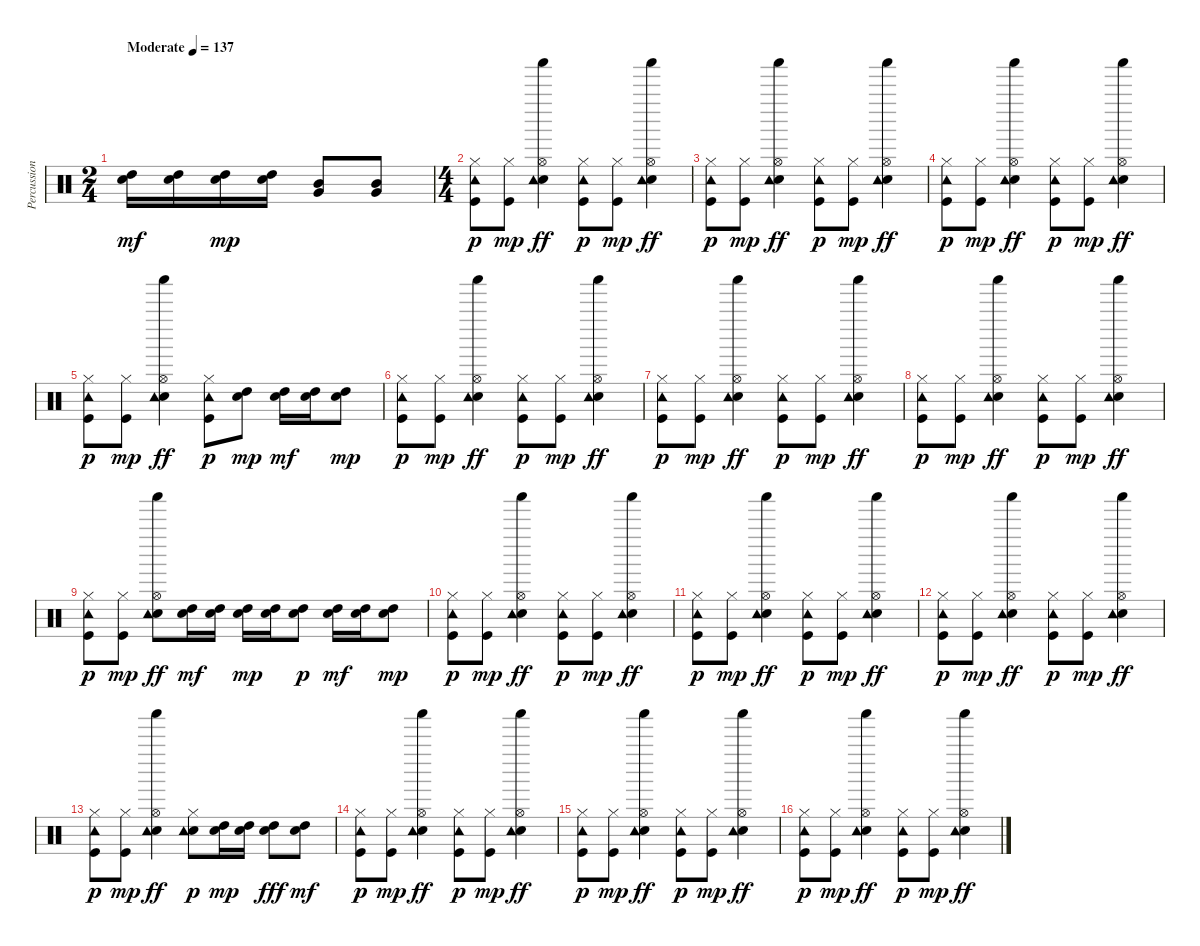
\track ("Percussion" "Percussion") {instrument percussion}
\staff {score}
\articulation defaults
\ts (2 4)
\tempo (137 "Moderate")
\clef neutral
\ks c
("Snare (hit) 2" "High Tom (hit)").16{bu 60 dy mf} ("Snare (hit) 2" "High Tom (hit)").16{bd 60} ("Snare (hit) 2" "High Tom (hit)").16{bu 60 dy mp} ("Snare (hit) 2" "High Tom (hit)").16{bd 60} ("Very Low Tom (hit)" "Mid Tom (hit)").8 ("Very Low Tom (hit)" "Mid Tom (hit)").8 |
\ts (4 4)
("Hi-Hat (closed)" "Kick (hit)" "Tambourine (hit)").8{dy p} ("Hi-Hat (closed)" "Kick (hit)").8{dy mp} ("Hi-Hat (open)" "Electric Snare (hit)" "Tambourine (hit)" "Shaker (hit)").4{dy ff} ("Hi-Hat (closed)" "Kick (hit)" "Tambourine (hit)").8{dy p} ("Hi-Hat (closed)" "Kick (hit)").8{dy mp} ("Hi-Hat (open)" "Electric Snare (hit)" "Tambourine (hit)" "Shaker (hit)").4{dy ff} |
("Hi-Hat (closed)" "Kick (hit)" "Tambourine (hit)").8{dy p} ("Hi-Hat (closed)" "Kick (hit)").8{dy mp} ("Hi-Hat (open)" "Electric Snare (hit)" "Tambourine (hit)" "Shaker (hit)").4{dy ff} ("Hi-Hat (closed)" "Kick (hit)" "Tambourine (hit)").8{dy p} ("Hi-Hat (closed)" "Kick (hit)").8{dy mp} ("Hi-Hat (open)" "Electric Snare (hit)" "Tambourine (hit)" "Shaker (hit)").4{dy ff} |
("Hi-Hat (closed)" "Kick (hit)" "Tambourine (hit)").8{dy p} ("Hi-Hat (closed)" "Kick (hit)").8{dy mp} ("Hi-Hat (open)" "Electric Snare (hit)" "Tambourine (hit)" "Shaker (hit)").4{dy ff} ("Hi-Hat (closed)" "Kick (hit)" "Tambourine (hit)").8{dy p} ("Hi-Hat (closed)" "Kick (hit)").8{dy mp} ("Hi-Hat (open)" "Electric Snare (hit)" "Tambourine (hit)" "Shaker (hit)").4{dy ff} |
("Hi-Hat (closed)" "Kick (hit)" "Tambourine (hit)").8{dy p} ("Hi-Hat (closed)" "Kick (hit)").8{dy mp} ("Hi-Hat (open)" "Electric Snare (hit)" "Tambourine (hit)" "Shaker (hit)").4{dy ff} ("Hi-Hat (closed)" "Kick (hit)" "Tambourine (hit)").8{dy p} ("Electric Snare (hit)" "High Tom (hit)").8{dy mp} ("Electric Snare (hit)" "High Tom (hit)").16{dy mf} ("Electric Snare (hit)" "High Tom (hit)").16 ("Electric Snare (hit)" "High Tom (hit)").8{dy mp} |
("Hi-Hat (closed)" "Kick (hit)" "Tambourine (hit)").8{dy p} ("Hi-Hat (closed)" "Kick (hit)").8{dy mp} ("Hi-Hat (open)" "Electric Snare (hit)" "Tambourine (hit)" "Shaker (hit)").4{dy ff} ("Hi-Hat (closed)" "Kick (hit)" "Tambourine (hit)").8{dy p} ("Hi-Hat (closed)" "Kick (hit)").8{dy mp} ("Hi-Hat (open)" "Electric Snare (hit)" "Tambourine (hit)" "Shaker (hit)").4{dy ff} |
("Hi-Hat (closed)" "Kick (hit)" "Tambourine (hit)").8{dy p} ("Hi-Hat (closed)" "Kick (hit)").8{dy mp} ("Hi-Hat (open)" "Electric Snare (hit)" "Tambourine (hit)" "Shaker (hit)").4{dy ff} ("Hi-Hat (closed)" "Kick (hit)" "Tambourine (hit)").8{dy p} ("Hi-Hat (closed)" "Kick (hit)").8{dy mp} ("Hi-Hat (open)" "Electric Snare (hit)" "Tambourine (hit)" "Shaker (hit)").4{dy ff} |
("Hi-Hat (closed)" "Kick (hit)" "Tambourine (hit)").8{dy p} ("Hi-Hat (closed)" "Kick (hit)").8{dy mp} ("Hi-Hat (open)" "Electric Snare (hit)" "Tambourine (hit)" "Shaker (hit)").4{dy ff} ("Hi-Hat (closed)" "Kick (hit)" "Tambourine (hit)").8{dy p} ("Hi-Hat (closed)" "Kick (hit)").8{dy mp} ("Hi-Hat (open)" "Electric Snare (hit)" "Tambourine (hit)" "Shaker (hit)").4{dy ff} |
("Hi-Hat (closed)" "Kick (hit)" "Tambourine (hit)").8{dy p} ("Hi-Hat (closed)" "Kick (hit)").8{dy mp} ("Hi-Hat (open)" "Electric Snare (hit)" "Tambourine (hit)" "Shaker (hit)").8{dy ff} ("Electric Snare (hit)" "High Tom (hit)").16{dy mf} ("Electric Snare (hit)" "High Tom (hit)").16 ("Electric Snare (hit)" "High Tom (hit)").16{dy mp} ("Electric Snare (hit)" "High Tom (hit)").16 ("Electric Snare (hit)" "High Tom (hit)").8{dy p} ("Electric Snare (hit)" "High Tom (hit)").16{dy mf} ("Electric Snare (hit)" "High Tom (hit)").16 ("Electric Snare (hit)" "High Tom (hit)").8{dy mp} |
("Hi-Hat (closed)" "Kick (hit)" "Tambourine (hit)").8{dy p} ("Hi-Hat (closed)" "Kick (hit)").8{dy mp} ("Hi-Hat (open)" "Electric Snare (hit)" "Tambourine (hit)" "Shaker (hit)").4{dy ff} ("Hi-Hat (closed)" "Kick (hit)" "Tambourine (hit)").8{dy p} ("Hi-Hat (closed)" "Kick (hit)").8{dy mp} ("Hi-Hat (open)" "Electric Snare (hit)" "Tambourine (hit)" "Shaker (hit)").4{dy ff} |
("Hi-Hat (closed)" "Kick (hit)" "Tambourine (hit)").8{dy p} ("Hi-Hat (closed)" "Kick (hit)").8{dy mp} ("Hi-Hat (open)" "Electric Snare (hit)" "Tambourine (hit)" "Shaker (hit)").4{dy ff} ("Hi-Hat (closed)" "Kick (hit)" "Tambourine (hit)").8{dy p} ("Hi-Hat (closed)" "Kick (hit)").8{dy mp} ("Hi-Hat (open)" "Electric Snare (hit)" "Tambourine (hit)" "Shaker (hit)").4{dy ff} |
("Hi-Hat (closed)" "Kick (hit)" "Tambourine (hit)").8{dy p} ("Hi-Hat (closed)" "Kick (hit)").8{dy mp} ("Hi-Hat (open)" "Electric Snare (hit)" "Tambourine (hit)" "Shaker (hit)").4{dy ff} ("Hi-Hat (closed)" "Kick (hit)" "Tambourine (hit)").8{dy p} ("Hi-Hat (closed)" "Kick (hit)").8{dy mp} ("Hi-Hat (open)" "Electric Snare (hit)" "Tambourine (hit)" "Shaker (hit)").4{dy ff} |
("Hi-Hat (closed)" "Kick (hit)" "Tambourine (hit)").8{dy p} ("Hi-Hat (closed)" "Kick (hit)").8{dy mp} ("Hi-Hat (open)" "Electric Snare (hit)" "Tambourine (hit)" "Shaker (hit)").4{dy ff} ("Hi-Hat (closed)" "Electric Snare (hit)" "Tambourine (hit)").8{dy p} ("Electric Snare (hit)" "High Tom (hit)").16{dy mp} ("Electric Snare (hit)" "High Tom (hit)").16 ("Electric Snare (hit)" "High Tom (hit)").8{dy fff} ("Electric Snare (hit)" "High Tom (hit)").8{dy mf} |
("Hi-Hat (closed)" "Kick (hit)" "Tambourine (hit)").8{dy p} ("Hi-Hat (closed)" "Kick (hit)").8{dy mp} ("Hi-Hat (open)" "Electric Snare (hit)" "Tambourine (hit)" "Shaker (hit)").4{dy ff} ("Hi-Hat (closed)" "Kick (hit)" "Tambourine (hit)").8{dy p} ("Hi-Hat (closed)" "Kick (hit)").8{dy mp} ("Hi-Hat (open)" "Electric Snare (hit)" "Tambourine (hit)" "Shaker (hit)").4{dy ff} |
("Hi-Hat (closed)" "Kick (hit)" "Tambourine (hit)").8{dy p} ("Hi-Hat (closed)" "Kick (hit)").8{dy mp} ("Hi-Hat (open)" "Electric Snare (hit)" "Tambourine (hit)" "Shaker (hit)").4{dy ff} ("Hi-Hat (closed)" "Kick (hit)" "Tambourine (hit)").8{dy p} ("Hi-Hat (closed)" "Kick (hit)").8{dy mp} ("Hi-Hat (open)" "Electric Snare (hit)" "Tambourine (hit)" "Shaker (hit)").4{dy ff} |
("Hi-Hat (closed)" "Kick (hit)" "Tambourine (hit)").8{dy p} ("Hi-Hat (closed)" "Kick (hit)").8{dy mp} ("Hi-Hat (open)" "Electric Snare (hit)" "Tambourine (hit)" "Shaker (hit)").4{dy ff} ("Hi-Hat (closed)" "Kick (hit)" "Tambourine (hit)").8{dy p} ("Hi-Hat (closed)" "Kick (hit)").8{dy mp} ("Hi-Hat (open)" "Electric Snare (hit)" "Tambourine (hit)" "Shaker (hit)").4{dy ff}
